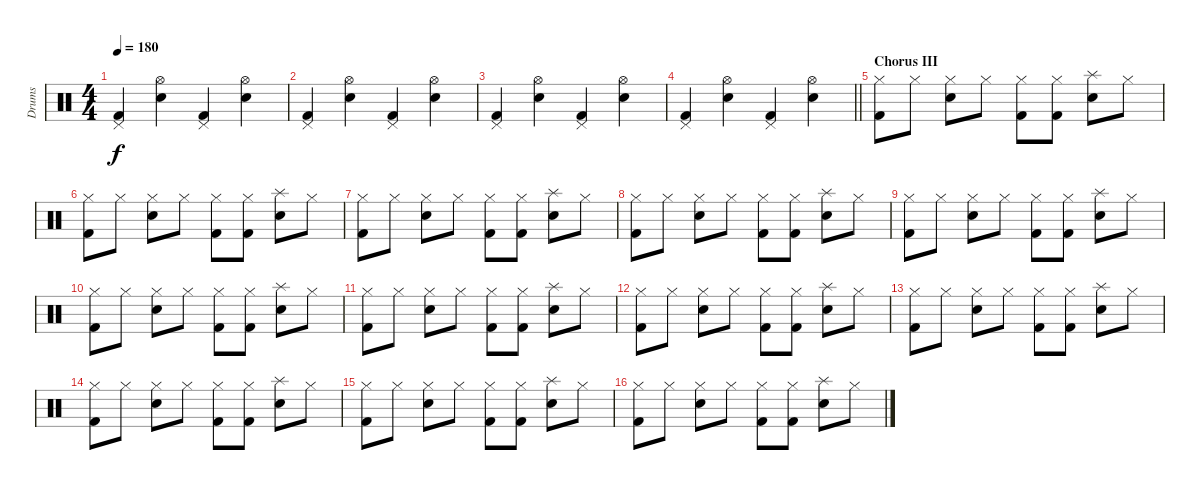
\track ("Drums" "Drums") {instrument percussion}
\staff {score}
\articulation defaults
\ts (4 4)
\tempo 180
\clef neutral
\ks c
("Pedal Hi-Hat (hit)" "Kick (hit) 2").4{dy f} ("Hi-Hat (open)" "Snare (hit) 2").4 ("Pedal Hi-Hat (hit)" "Kick (hit) 2").4 ("Hi-Hat (open)" "Snare (hit) 2").4 |
("Pedal Hi-Hat (hit)" "Kick (hit) 2").4 ("Hi-Hat (open)" "Snare (hit) 2").4 ("Pedal Hi-Hat (hit)" "Kick (hit) 2").4 ("Hi-Hat (open)" "Snare (hit) 2").4 |
("Pedal Hi-Hat (hit)" "Kick (hit) 2").4 ("Hi-Hat (open)" "Snare (hit) 2").4 ("Pedal Hi-Hat (hit)" "Kick (hit) 2").4 ("Hi-Hat (open)" "Snare (hit) 2").4 |
\barLineRight lightlight
("Pedal Hi-Hat (hit)" "Kick (hit) 2").4 ("Hi-Hat (open)" "Snare (hit) 2").4 ("Pedal Hi-Hat (hit)" "Kick (hit) 2").4 ("Hi-Hat (open)" "Snare (hit) 2").4 |
\section ("" "Chorus III")
("Hi-Hat (closed)" "Kick (hit) 2").8 "Hi-Hat (closed)".8 ("Hi-Hat (closed)" "Snare (hit) 2").8 "Hi-Hat (closed)".8 ("Hi-Hat (closed)" "Kick (hit) 2").8 ("Hi-Hat (closed)" "Kick (hit) 2").8 ("Splash (hit)" "Snare (hit) 2").8 "Hi-Hat (closed)".8 |
("Hi-Hat (closed)" "Kick (hit) 2").8 "Hi-Hat (closed)".8 ("Hi-Hat (closed)" "Snare (hit) 2").8 "Hi-Hat (closed)".8 ("Hi-Hat (closed)" "Kick (hit) 2").8 ("Hi-Hat (closed)" "Kick (hit) 2").8 ("Splash (hit)" "Snare (hit) 2").8 "Hi-Hat (closed)".8 |
("Hi-Hat (closed)" "Kick (hit) 2").8 "Hi-Hat (closed)".8 ("Hi-Hat (closed)" "Snare (hit) 2").8 "Hi-Hat (closed)".8 ("Hi-Hat (closed)" "Kick (hit) 2").8 ("Hi-Hat (closed)" "Kick (hit) 2").8 ("Splash (hit)" "Snare (hit) 2").8 "Hi-Hat (closed)".8 |
("Hi-Hat (closed)" "Kick (hit) 2").8 "Hi-Hat (closed)".8 ("Hi-Hat (closed)" "Snare (hit) 2").8 "Hi-Hat (closed)".8 ("Hi-Hat (closed)" "Kick (hit) 2").8 ("Hi-Hat (closed)" "Kick (hit) 2").8 ("Splash (hit)" "Snare (hit) 2").8 "Hi-Hat (closed)".8 |
("Hi-Hat (closed)" "Kick (hit) 2").8 "Hi-Hat (closed)".8 ("Hi-Hat (closed)" "Snare (hit) 2").8 "Hi-Hat (closed)".8 ("Hi-Hat (closed)" "Kick (hit) 2").8 ("Hi-Hat (closed)" "Kick (hit) 2").8 ("Splash (hit)" "Snare (hit) 2").8 "Hi-Hat (closed)".8 |
("Hi-Hat (closed)" "Kick (hit) 2").8 "Hi-Hat (closed)".8 ("Hi-Hat (closed)" "Snare (hit) 2").8 "Hi-Hat (closed)".8 ("Hi-Hat (closed)" "Kick (hit) 2").8 ("Hi-Hat (closed)" "Kick (hit) 2").8 ("Splash (hit)" "Snare (hit) 2").8 "Hi-Hat (closed)".8 |
("Hi-Hat (closed)" "Kick (hit) 2").8 "Hi-Hat (closed)".8 ("Hi-Hat (closed)" "Snare (hit) 2").8 "Hi-Hat (closed)".8 ("Hi-Hat (closed)" "Kick (hit) 2").8 ("Hi-Hat (closed)" "Kick (hit) 2").8 ("Splash (hit)" "Snare (hit) 2").8 "Hi-Hat (closed)".8 |
("Hi-Hat (closed)" "Kick (hit) 2").8 "Hi-Hat (closed)".8 ("Hi-Hat (closed)" "Snare (hit) 2").8 "Hi-Hat (closed)".8 ("Hi-Hat (closed)" "Kick (hit) 2").8 ("Hi-Hat (closed)" "Kick (hit) 2").8 ("Splash (hit)" "Snare (hit) 2").8 "Hi-Hat (closed)".8 |
("Hi-Hat (closed)" "Kick (hit) 2").8 "Hi-Hat (closed)".8 ("Hi-Hat (closed)" "Snare (hit) 2").8 "Hi-Hat (closed)".8 ("Hi-Hat (closed)" "Kick (hit) 2").8 ("Hi-Hat (closed)" "Kick (hit) 2").8 ("Splash (hit)" "Snare (hit) 2").8 "Hi-Hat (closed)".8 |
("Hi-Hat (closed)" "Kick (hit) 2").8 "Hi-Hat (closed)".8 ("Hi-Hat (closed)" "Snare (hit) 2").8 "Hi-Hat (closed)".8 ("Hi-Hat (closed)" "Kick (hit) 2").8 ("Hi-Hat (closed)" "Kick (hit) 2").8 ("Splash (hit)" "Snare (hit) 2").8 "Hi-Hat (closed)".8 |
("Hi-Hat (closed)" "Kick (hit) 2").8 "Hi-Hat (closed)".8 ("Hi-Hat (closed)" "Snare (hit) 2").8 "Hi-Hat (closed)".8 ("Hi-Hat (closed)" "Kick (hit) 2").8 ("Hi-Hat (closed)" "Kick (hit) 2").8 ("Splash (hit)" "Snare (hit) 2").8 "Hi-Hat (closed)".8 |
("Hi-Hat (closed)" "Kick (hit) 2").8 "Hi-Hat (closed)".8 ("Hi-Hat (closed)" "Snare (hit) 2").8 "Hi-Hat (closed)".8 ("Hi-Hat (closed)" "Kick (hit) 2").8 ("Hi-Hat (closed)" "Kick (hit) 2").8 ("Splash (hit)" "Snare (hit) 2").8 "Hi-Hat (closed)".8
